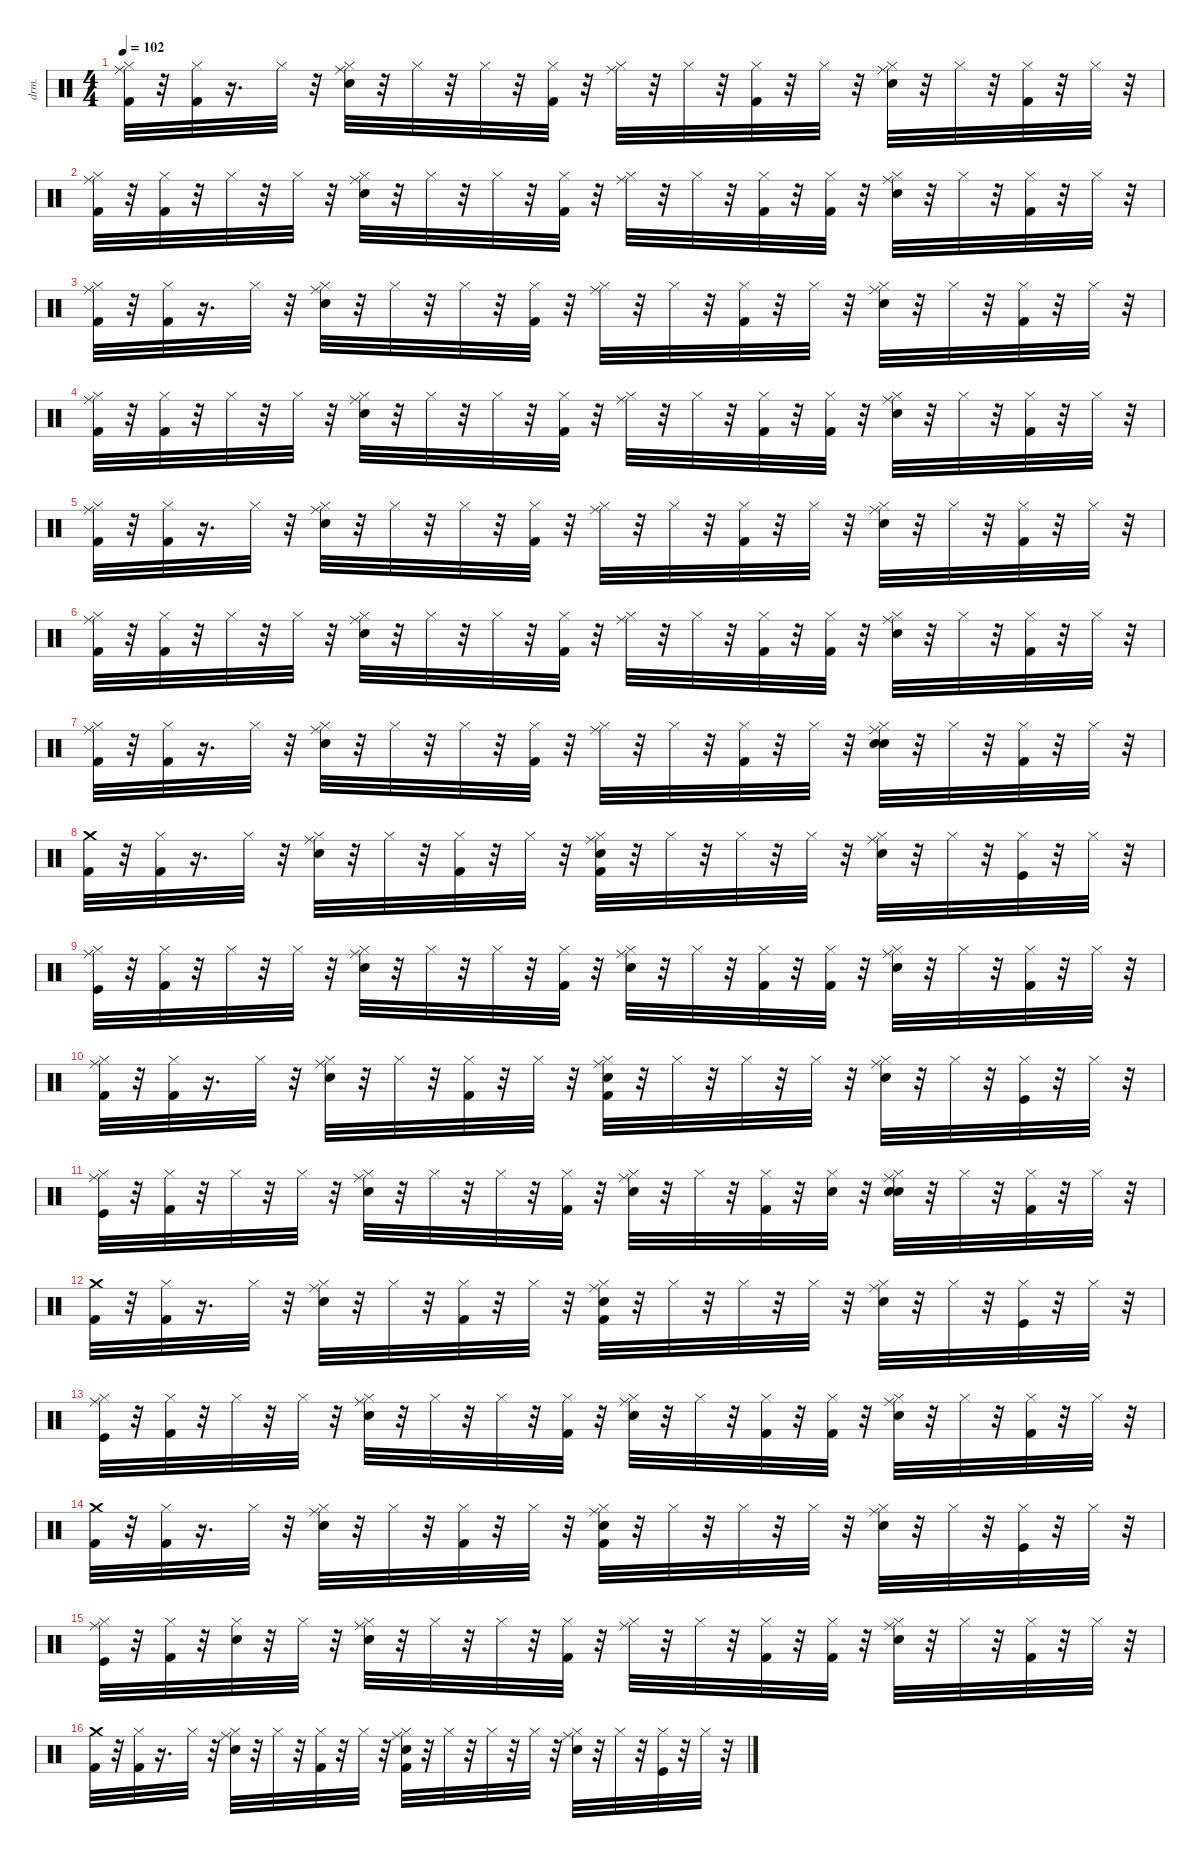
\defaultSystemsLayout 4
\hideDynamics
\bracketExtendMode nobrackets
\otherSystemsTrackNameOrientation horizontal
\track ("Nick Mason / Gary Wallis" "drm.") {instrument percussion}
\staff {score}
\articulation defaults
\ts (4 4)
\tempo 102
\clef neutral
\ks c
("Kick (hit) 2" "Hi-Hat (closed)" "Ride (middle)").32{dy ff beam Down} r.32{beam Down} ("Hi-Hat (closed)" "Kick (hit) 2").32{dy mp beam Down} r.16{d beam Down} "Hi-Hat (closed)".32{dy pp beam Down} r.32{beam Down} ("Snare (hit) 2" "Hi-Hat (closed)" "Ride (middle)").32{dy p beam Down} r.32{beam Down} "Hi-Hat (closed)".32{dy pp beam Down} r.32{beam Down} "Hi-Hat (closed)".32{dy mp beam Down} r.32{beam Down} ("Hi-Hat (closed)" "Kick (hit) 2").32{dy ppp beam Down} r.32{beam Down} ("Hi-Hat (closed)" "Ride (middle)").32{dy mf beam Down} r.32{beam Down} "Hi-Hat (closed)".32{dy ppp beam Down} r.32{beam Down} ("Hi-Hat (closed)" "Kick (hit) 2").32{dy pp beam Down} r.32{beam Down} "Hi-Hat (closed)".32{beam Down} r.32{beam Down} ("Snare (hit) 2" "Hi-Hat (closed)" "Ride (middle)").32{dy p beam Down} r.32{beam Down} "Hi-Hat (closed)".32{dy ppp beam Down} r.32{beam Down} ("Kick (hit) 2" "Hi-Hat (closed)").32{dy f beam Down} r.32{beam Down} "Hi-Hat (closed)".32{dy mp beam Down} r.32{beam Down} |
("Kick (hit) 2" "Hi-Hat (closed)" "Ride (middle)").32{dy ff beam Down} r.32{beam Down} ("Hi-Hat (closed)" "Kick (hit) 2").32{dy pp beam Down} r.32{beam Down} "Hi-Hat (closed)".32{dy ppp beam Down} r.32{beam Down} "Hi-Hat (closed)".32{dy p beam Down} r.32{beam Down} ("Snare (hit) 2" "Hi-Hat (closed)" "Ride (middle)").32{beam Down} r.32{beam Down} "Hi-Hat (closed)".32{dy ppp beam Down} r.32{beam Down} "Hi-Hat (closed)".32{dy mp beam Down} r.32{beam Down} ("Hi-Hat (closed)" "Kick (hit) 2").32{dy ppp beam Down} r.32{beam Down} ("Hi-Hat (closed)" "Ride (middle)").32{dy mf beam Down} r.32{beam Down} "Hi-Hat (closed)".32{dy pp beam Down} r.32{beam Down} ("Hi-Hat (closed)" "Kick (hit) 2").32{dy ppp beam Down} r.32{beam Down} ("Hi-Hat (closed)" "Kick (hit) 2").32{dy p beam Down} r.32{beam Down} ("Snare (hit) 2" "Hi-Hat (closed)" "Ride (middle)").32{beam Down} r.32{beam Down} "Hi-Hat (closed)".32{dy ppp beam Down} r.32{beam Down} ("Kick (hit) 2" "Hi-Hat (closed)").32{dy f beam Down} r.32{beam Down} "Hi-Hat (closed)".32{dy p beam Down} r.32{beam Down} |
("Kick (hit) 2" "Hi-Hat (closed)" "Ride (middle)").32{dy ff beam Down} r.32{beam Down} ("Hi-Hat (closed)" "Kick (hit) 2").32{dy mp beam Down} r.16{d beam Down} "Hi-Hat (closed)".32{dy pp beam Down} r.32{beam Down} ("Snare (hit) 2" "Hi-Hat (closed)" "Ride (middle)").32{dy p beam Down} r.32{beam Down} "Hi-Hat (closed)".32{dy pp beam Down} r.32{beam Down} "Hi-Hat (closed)".32{dy mp beam Down} r.32{beam Down} ("Hi-Hat (closed)" "Kick (hit) 2").32{dy ppp beam Down} r.32{beam Down} ("Hi-Hat (closed)" "Ride (middle)").32{dy mf beam Down} r.32{beam Down} "Hi-Hat (closed)".32{dy ppp beam Down} r.32{beam Down} ("Hi-Hat (closed)" "Kick (hit) 2").32{dy pp beam Down} r.32{beam Down} "Hi-Hat (closed)".32{beam Down} r.32{beam Down} ("Snare (hit) 2" "Hi-Hat (closed)" "Ride (middle)").32{dy p beam Down} r.32{beam Down} "Hi-Hat (closed)".32{dy ppp beam Down} r.32{beam Down} ("Kick (hit) 2" "Hi-Hat (closed)").32{dy f beam Down} r.32{beam Down} "Hi-Hat (closed)".32{dy mp beam Down} r.32{beam Down} |
("Kick (hit) 2" "Hi-Hat (closed)" "Ride (middle)").32{dy ff beam Down} r.32{beam Down} ("Hi-Hat (closed)" "Kick (hit) 2").32{dy pp beam Down} r.32{beam Down} "Hi-Hat (closed)".32{dy ppp beam Down} r.32{beam Down} "Hi-Hat (closed)".32{dy p beam Down} r.32{beam Down} ("Snare (hit) 2" "Hi-Hat (closed)" "Ride (middle)").32{beam Down} r.32{beam Down} "Hi-Hat (closed)".32{dy ppp beam Down} r.32{beam Down} "Hi-Hat (closed)".32{dy mp beam Down} r.32{beam Down} ("Hi-Hat (closed)" "Kick (hit) 2").32{dy ppp beam Down} r.32{beam Down} ("Hi-Hat (closed)" "Ride (middle)").32{dy mf beam Down} r.32{beam Down} "Hi-Hat (closed)".32{dy pp beam Down} r.32{beam Down} ("Hi-Hat (closed)" "Kick (hit) 2").32{dy ppp beam Down} r.32{beam Down} ("Hi-Hat (closed)" "Kick (hit) 2").32{dy p beam Down} r.32{beam Down} ("Snare (hit) 2" "Hi-Hat (closed)" "Ride (middle)").32{beam Down} r.32{beam Down} "Hi-Hat (closed)".32{dy ppp beam Down} r.32{beam Down} ("Kick (hit) 2" "Hi-Hat (closed)").32{dy f beam Down} r.32{beam Down} "Hi-Hat (closed)".32{dy p beam Down} r.32{beam Down} |
("Kick (hit) 2" "Hi-Hat (closed)" "Ride (middle)").32{dy ff beam Down} r.32{beam Down} ("Hi-Hat (closed)" "Kick (hit) 2").32{dy mp beam Down} r.16{d beam Down} "Hi-Hat (closed)".32{dy pp beam Down} r.32{beam Down} ("Snare (hit) 2" "Hi-Hat (closed)" "Ride (middle)").32{dy p beam Down} r.32{beam Down} "Hi-Hat (closed)".32{dy pp beam Down} r.32{beam Down} "Hi-Hat (closed)".32{dy mp beam Down} r.32{beam Down} ("Hi-Hat (closed)" "Kick (hit) 2").32{dy ppp beam Down} r.32{beam Down} ("Hi-Hat (closed)" "Ride (middle)").32{dy mf beam Down} r.32{beam Down} "Hi-Hat (closed)".32{dy ppp beam Down} r.32{beam Down} ("Hi-Hat (closed)" "Kick (hit) 2").32{dy pp beam Down} r.32{beam Down} "Hi-Hat (closed)".32{beam Down} r.32{beam Down} ("Snare (hit) 2" "Hi-Hat (closed)" "Ride (middle)").32{dy p beam Down} r.32{beam Down} "Hi-Hat (closed)".32{dy ppp beam Down} r.32{beam Down} ("Kick (hit) 2" "Hi-Hat (closed)").32{dy f beam Down} r.32{beam Down} "Hi-Hat (closed)".32{dy mp beam Down} r.32{beam Down} |
("Kick (hit) 2" "Hi-Hat (closed)" "Ride (middle)").32{dy ff beam Down} r.32{beam Down} ("Hi-Hat (closed)" "Kick (hit) 2").32{dy pp beam Down} r.32{beam Down} "Hi-Hat (closed)".32{dy ppp beam Down} r.32{beam Down} "Hi-Hat (closed)".32{dy p beam Down} r.32{beam Down} ("Snare (hit) 2" "Hi-Hat (closed)" "Ride (middle)").32{beam Down} r.32{beam Down} "Hi-Hat (closed)".32{dy ppp beam Down} r.32{beam Down} "Hi-Hat (closed)".32{dy mp beam Down} r.32{beam Down} ("Hi-Hat (closed)" "Kick (hit) 2").32{dy ppp beam Down} r.32{beam Down} ("Hi-Hat (closed)" "Ride (middle)").32{dy mf beam Down} r.32{beam Down} "Hi-Hat (closed)".32{dy pp beam Down} r.32{beam Down} ("Hi-Hat (closed)" "Kick (hit) 2").32{dy ppp beam Down} r.32{beam Down} ("Hi-Hat (closed)" "Kick (hit) 2").32{dy p beam Down} r.32{beam Down} ("Snare (hit) 2" "Hi-Hat (closed)" "Ride (middle)").32{beam Down} r.32{beam Down} "Hi-Hat (closed)".32{dy ppp beam Down} r.32{beam Down} ("Kick (hit) 2" "Hi-Hat (closed)").32{dy f beam Down} r.32{beam Down} "Hi-Hat (closed)".32{dy p beam Down} r.32{beam Down} |
("Kick (hit) 2" "Hi-Hat (closed)" "Ride (middle)").32{dy ff beam Down} r.32{beam Down} ("Hi-Hat (closed)" "Kick (hit) 2").32{dy mp beam Down} r.16{d beam Down} "Hi-Hat (closed)".32{dy pp beam Down} r.32{beam Down} ("Snare (hit) 2" "Hi-Hat (closed)" "Ride (middle)").32{dy p beam Down} r.32{beam Down} "Hi-Hat (closed)".32{dy pp beam Down} r.32{beam Down} "Hi-Hat (closed)".32{dy mp beam Down} r.32{beam Down} ("Hi-Hat (closed)" "Kick (hit) 2").32{dy ppp beam Down} r.32{beam Down} ("Hi-Hat (closed)" "Ride (middle)").32{dy mf beam Down} r.32{beam Down} "Hi-Hat (closed)".32{dy ppp beam Down} r.32{beam Down} ("Hi-Hat (closed)" "Kick (hit) 2").32{dy pp beam Down} r.32{beam Down} "Hi-Hat (closed)".32{beam Down} r.32{beam Down} ("Snare (hit) 2" "Snare (hit) 2" "Hi-Hat (closed)" "Ride (middle)").32{dy mp beam Down} r.32{beam Down} "Hi-Hat (closed)".32{dy ppp beam Down} r.32{beam Down} ("Kick (hit) 2" "Hi-Hat (closed)").32{dy f beam Down} r.32{beam Down} "Hi-Hat (closed)".32{dy mp beam Down} r.32{beam Down} |
("Kick (hit) 2" "Crash medium (hit)").32{dy ff beam Down} r.32{beam Down} ("Hi-Hat (closed)" "Kick (hit) 2").32{dy mp beam Down} r.16{d beam Down} "Hi-Hat (closed)".32{dy pp beam Down} r.32{beam Down} ("Snare (hit) 2" "Hi-Hat (closed)" "Ride (middle)").32{dy p beam Down} r.32{beam Down} "Hi-Hat (closed)".32{dy pp beam Down} r.32{beam Down} ("Kick (hit) 2" "Hi-Hat (closed)").32{dy f beam Down} r.32{beam Down} "Hi-Hat (closed)".32{dy ppp beam Down} r.32{beam Down} ("Kick (hit) 2" "Snare (hit) 2" "Hi-Hat (closed)" "Ride (middle)").32{dy f beam Down} r.32{beam Down} "Hi-Hat (closed)".32{dy ppp beam Down} r.32{beam Down} "Hi-Hat (closed)".32{dy pp beam Down} r.32{beam Down} "Hi-Hat (closed)".32{beam Down} r.32{beam Down} ("Snare (hit) 2" "Hi-Hat (closed)" "Ride (middle)").32{dy p beam Down} r.32{beam Down} "Hi-Hat (closed)".32{dy ppp beam Down} r.32{beam Down} ("Kick (hit)" "Hi-Hat (closed)").32{dy f beam Down} r.32{beam Down} "Hi-Hat (closed)".32{dy mp beam Down} r.32{beam Down} |
("Kick (hit)" "Hi-Hat (closed)" "Ride (middle)").32{dy fff beam Down} r.32{beam Down} ("Hi-Hat (closed)" "Kick (hit) 2").32{dy pp beam Down} r.32{beam Down} "Hi-Hat (closed)".32{dy ppp beam Down} r.32{beam Down} "Hi-Hat (closed)".32{dy p beam Down} r.32{beam Down} ("Snare (hit) 2" "Hi-Hat (closed)" "Ride (middle)").32{beam Down} r.32{beam Down} "Hi-Hat (closed)".32{dy ppp beam Down} r.32{beam Down} "Hi-Hat (closed)".32{dy mp beam Down} r.32{beam Down} ("Hi-Hat (closed)" "Kick (hit) 2").32{dy ppp beam Down} r.32{beam Down} ("Snare (hit) 2" "Hi-Hat (closed)" "Ride (middle)").32{dy ff beam Down} r.32{beam Down} "Hi-Hat (closed)".32{dy pp beam Down} r.32{beam Down} ("Hi-Hat (closed)" "Kick (hit) 2").32{dy ppp beam Down} r.32{beam Down} ("Hi-Hat (closed)" "Kick (hit) 2").32{dy p beam Down} r.32{beam Down} ("Snare (hit) 2" "Hi-Hat (closed)" "Ride (middle)").32{beam Down} r.32{beam Down} "Hi-Hat (closed)".32{dy ppp beam Down} r.32{beam Down} ("Kick (hit) 2" "Hi-Hat (closed)").32{dy f beam Down} r.32{beam Down} "Hi-Hat (closed)".32{dy p beam Down} r.32{beam Down} |
("Kick (hit) 2" "Hi-Hat (closed)" "Ride (middle)").32{dy ff beam Down} r.32{beam Down} ("Hi-Hat (closed)" "Kick (hit) 2").32{dy mp beam Down} r.16{d beam Down} "Hi-Hat (closed)".32{dy pp beam Down} r.32{beam Down} ("Snare (hit) 2" "Hi-Hat (closed)" "Ride (middle)").32{dy p beam Down} r.32{beam Down} "Hi-Hat (closed)".32{dy pp beam Down} r.32{beam Down} ("Kick (hit) 2" "Hi-Hat (closed)").32{dy ff beam Down} r.32{beam Down} "Hi-Hat (closed)".32{dy ppp beam Down} r.32{beam Down} ("Kick (hit) 2" "Snare (hit) 2" "Hi-Hat (closed)" "Ride (middle)").32{dy f beam Down} r.32{beam Down} "Hi-Hat (closed)".32{dy ppp beam Down} r.32{beam Down} "Hi-Hat (closed)".32{dy pp beam Down} r.32{beam Down} "Hi-Hat (closed)".32{beam Down} r.32{beam Down} ("Snare (hit) 2" "Hi-Hat (closed)" "Ride (middle)").32{dy p beam Down} r.32{beam Down} "Hi-Hat (closed)".32{dy ppp beam Down} r.32{beam Down} ("Kick (hit)" "Hi-Hat (closed)").32{dy f beam Down} r.32{beam Down} "Hi-Hat (closed)".32{dy mp beam Down} r.32{beam Down} |
("Kick (hit)" "Hi-Hat (closed)" "Ride (middle)").32{dy fff beam Down} r.32{beam Down} ("Hi-Hat (closed)" "Kick (hit) 2").32{dy pp beam Down} r.32{beam Down} "Hi-Hat (closed)".32{dy ppp beam Down} r.32{beam Down} "Hi-Hat (closed)".32{dy p beam Down} r.32{beam Down} ("Snare (hit) 2" "Hi-Hat (closed)" "Ride (middle)").32{beam Down} r.32{beam Down} "Hi-Hat (closed)".32{dy ppp beam Down} r.32{beam Down} "Hi-Hat (closed)".32{dy mp beam Down} r.32{beam Down} ("Hi-Hat (closed)" "Kick (hit) 2").32{dy ppp beam Down} r.32{beam Down} ("Snare (hit) 2" "Hi-Hat (closed)" "Ride (middle)").32{dy ff beam Down} r.32{beam Down} "Hi-Hat (closed)".32{dy pp beam Down} r.32{beam Down} ("Hi-Hat (closed)" "Kick (hit) 2").32{dy ppp beam Down} r.32{beam Down} ("Snare (hit) 2" "Hi-Hat (closed)").32{dy mp beam Down} r.32{beam Down} ("Snare (hit) 2" "Snare (hit) 2" "Hi-Hat (closed)" "Ride (middle)").32{dy p beam Down} r.32{beam Down} "Hi-Hat (closed)".32{dy ppp beam Down} r.32{beam Down} ("Kick (hit) 2" "Hi-Hat (closed)").32{dy f beam Down} r.32{beam Down} "Hi-Hat (closed)".32{dy p beam Down} r.32{beam Down} |
("Kick (hit) 2" "Crash medium (hit)").32{dy ff beam Down} r.32{beam Down} ("Hi-Hat (closed)" "Kick (hit) 2").32{dy mp beam Down} r.16{d beam Down} "Hi-Hat (closed)".32{dy pp beam Down} r.32{beam Down} ("Snare (hit) 2" "Hi-Hat (closed)" "Ride (middle)").32{dy p beam Down} r.32{beam Down} "Hi-Hat (closed)".32{dy pp beam Down} r.32{beam Down} ("Kick (hit) 2" "Hi-Hat (closed)").32{dy f beam Down} r.32{beam Down} "Hi-Hat (closed)".32{dy ppp beam Down} r.32{beam Down} ("Kick (hit) 2" "Snare (hit) 2" "Hi-Hat (closed)" "Ride (middle)").32{dy f beam Down} r.32{beam Down} "Hi-Hat (closed)".32{dy ppp beam Down} r.32{beam Down} "Hi-Hat (closed)".32{dy pp beam Down} r.32{beam Down} "Hi-Hat (closed)".32{beam Down} r.32{beam Down} ("Snare (hit) 2" "Hi-Hat (closed)" "Ride (middle)").32{dy p beam Down} r.32{beam Down} "Hi-Hat (closed)".32{dy ppp beam Down} r.32{beam Down} ("Kick (hit)" "Hi-Hat (closed)").32{dy f beam Down} r.32{beam Down} "Hi-Hat (closed)".32{dy mp beam Down} r.32{beam Down} |
("Kick (hit)" "Hi-Hat (closed)" "Ride (middle)").32{dy fff beam Down} r.32{beam Down} ("Hi-Hat (closed)" "Kick (hit) 2").32{dy pp beam Down} r.32{beam Down} "Hi-Hat (closed)".32{dy ppp beam Down} r.32{beam Down} "Hi-Hat (closed)".32{dy p beam Down} r.32{beam Down} ("Snare (hit) 2" "Hi-Hat (closed)" "Ride (middle)").32{beam Down} r.32{beam Down} "Hi-Hat (closed)".32{dy ppp beam Down} r.32{beam Down} "Hi-Hat (closed)".32{dy mp beam Down} r.32{beam Down} ("Hi-Hat (closed)" "Kick (hit) 2").32{dy ppp beam Down} r.32{beam Down} ("Snare (hit) 2" "Hi-Hat (closed)" "Ride (middle)").32{dy ff beam Down} r.32{beam Down} "Hi-Hat (closed)".32{dy pp beam Down} r.32{beam Down} ("Hi-Hat (closed)" "Kick (hit) 2").32{dy ppp beam Down} r.32{beam Down} ("Hi-Hat (closed)" "Kick (hit) 2").32{dy p beam Down} r.32{beam Down} ("Snare (hit) 2" "Hi-Hat (closed)" "Ride (middle)").32{beam Down} r.32{beam Down} "Hi-Hat (closed)".32{dy ppp beam Down} r.32{beam Down} ("Kick (hit) 2" "Hi-Hat (closed)").32{dy f beam Down} r.32{beam Down} "Hi-Hat (closed)".32{dy p beam Down} r.32{beam Down} |
("Kick (hit) 2" "Crash medium (hit)").32{dy ff beam Down} r.32{beam Down} ("Hi-Hat (closed)" "Kick (hit) 2").32{dy mp beam Down} r.16{d beam Down} "Hi-Hat (closed)".32{dy pp beam Down} r.32{beam Down} ("Snare (hit) 2" "Hi-Hat (closed)" "Ride (middle)").32{dy p beam Down} r.32{beam Down} "Hi-Hat (closed)".32{dy pp beam Down} r.32{beam Down} ("Kick (hit) 2" "Hi-Hat (closed)").32{dy ff beam Down} r.32{beam Down} "Hi-Hat (closed)".32{dy ppp beam Down} r.32{beam Down} ("Kick (hit) 2" "Snare (hit) 2" "Hi-Hat (closed)" "Ride (middle)").32{dy f beam Down} r.32{beam Down} "Hi-Hat (closed)".32{dy ppp beam Down} r.32{beam Down} "Hi-Hat (closed)".32{dy pp beam Down} r.32{beam Down} "Hi-Hat (closed)".32{beam Down} r.32{beam Down} ("Snare (hit) 2" "Hi-Hat (closed)" "Ride (middle)").32{dy p beam Down} r.32{beam Down} "Hi-Hat (closed)".32{dy ppp beam Down} r.32{beam Down} ("Kick (hit)" "Hi-Hat (closed)").32{dy f beam Down} r.32{beam Down} "Hi-Hat (closed)".32{dy mp beam Down} r.32{beam Down} |
("Kick (hit)" "Hi-Hat (closed)" "Ride (middle)").32{dy fff beam Down} r.32{beam Down} ("Hi-Hat (closed)" "Kick (hit) 2").32{dy pp beam Down} r.32{beam Down} ("Snare (hit) 2" "Hi-Hat (closed)").32{dy ff beam Down} r.32{beam Down} "Hi-Hat (closed)".32{dy p beam Down} r.32{beam Down} ("Snare (hit) 2" "Hi-Hat (closed)" "Ride (middle)").32{beam Down} r.32{beam Down} "Hi-Hat (closed)".32{dy ppp beam Down} r.32{beam Down} "Hi-Hat (closed)".32{dy mp beam Down} r.32{beam Down} ("Hi-Hat (closed)" "Kick (hit) 2").32{dy ppp beam Down} r.32{beam Down} ("Hi-Hat (closed)" "Ride (middle)").32{dy mf beam Down} r.32{beam Down} "Hi-Hat (closed)".32{dy pp beam Down} r.32{beam Down} ("Hi-Hat (closed)" "Kick (hit) 2").32{dy ppp beam Down} r.32{beam Down} ("Hi-Hat (closed)" "Kick (hit) 2").32{dy p beam Down} r.32{beam Down} ("Snare (hit) 2" "Hi-Hat (closed)" "Ride (middle)").32{beam Down} r.32{beam Down} "Hi-Hat (closed)".32{dy ppp beam Down} r.32{beam Down} ("Kick (hit) 2" "Hi-Hat (closed)").32{dy f beam Down} r.32{beam Down} "Hi-Hat (closed)".32{dy p beam Down} r.32{beam Down} |
("Kick (hit) 2" "Crash medium (hit)").32{dy ff beam Down} r.32{beam Down} ("Hi-Hat (closed)" "Kick (hit) 2").32{dy mp beam Down} r.16{d beam Down} "Hi-Hat (closed)".32{dy pp beam Down} r.32{beam Down} ("Snare (hit) 2" "Hi-Hat (closed)" "Ride (middle)").32{dy p beam Down} r.32{beam Down} "Hi-Hat (closed)".32{dy pp beam Down} r.32{beam Down} ("Kick (hit) 2" "Hi-Hat (closed)").32{dy f beam Down} r.32{beam Down} "Hi-Hat (closed)".32{dy ppp beam Down} r.32{beam Down} ("Kick (hit) 2" "Snare (hit) 2" "Hi-Hat (closed)" "Ride (middle)").32{dy f beam Down} r.32{beam Down} "Hi-Hat (closed)".32{dy ppp beam Down} r.32{beam Down} "Hi-Hat (closed)".32{dy pp beam Down} r.32{beam Down} "Hi-Hat (closed)".32{beam Down} r.32{beam Down} ("Snare (hit) 2" "Hi-Hat (closed)" "Ride (middle)").32{dy p beam Down} r.32{beam Down} "Hi-Hat (closed)".32{dy ppp beam Down} r.32{beam Down} ("Kick (hit)" "Hi-Hat (closed)").32{dy f beam Down} r.32{beam Down} "Hi-Hat (closed)".32{dy mp beam Down} r.32{beam Down}
